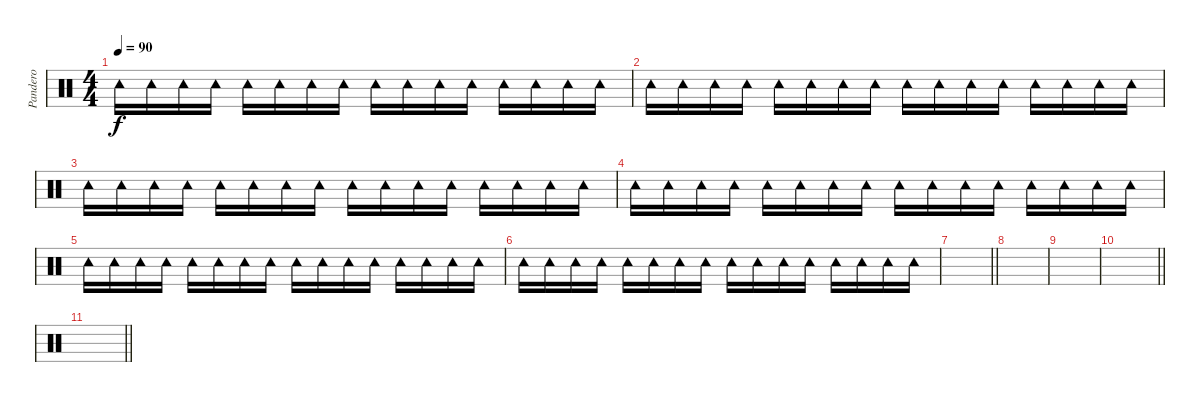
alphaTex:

\track ("Pandero" "Pandero") {instrument percussion}
\staff {score}
\articulation defaults
\ts (4 4)
\tempo 90
\clef neutral
\ks c "Tambourine (hit)".16{dy f} "Tambourine (hit)".16 "Tambourine (hit)".16 "Tambourine (hit)".16 "Tambourine (hit)".16 "Tambourine (hit)".16 "Tambourine (hit)".16 "Tambourine (hit)".16 "Tambourine (hit)".16 "Tambourine (hit)".16 "Tambourine (hit)".16 "Tambourine (hit)".16 "Tambourine (hit)".16 "Tambourine (hit)".16 "Tambourine (hit)".16 "Tambourine (hit)".16
|
"Tambourine (hit)".16 "Tambourine (hit)".16 "Tambourine (hit)".16 "Tambourine (hit)".16 "Tambourine (hit)".16 "Tambourine (hit)".16 "Tambourine (hit)".16 "Tambourine (hit)".16 "Tambourine (hit)".16 "Tambourine (hit)".16 "Tambourine (hit)".16 "Tambourine (hit)".16 "Tambourine (hit)".16 "Tambourine (hit)".16 "Tambourine (hit)".16 "Tambourine (hit)".16 |
"Tambourine (hit)".16 "Tambourine (hit)".16 "Tambourine (hit)".16 "Tambourine (hit)".16 "Tambourine (hit)".16 "Tambourine (hit)".16 "Tambourine (hit)".16 "Tambourine (hit)".16 "Tambourine (hit)".16 "Tambourine (hit)".16 "Tambourine (hit)".16 "Tambourine (hit)".16 "Tambourine (hit)".16 "Tambourine (hit)".16 "Tambourine (hit)".16 "Tambourine (hit)".16 |
"Tambourine (hit)".16 "Tambourine (hit)".16 "Tambourine (hit)".16 "Tambourine (hit)".16 "Tambourine (hit)".16 "Tambourine (hit)".16 "Tambourine (hit)".16 "Tambourine (hit)".16 "Tambourine (hit)".16 "Tambourine (hit)".16 "Tambourine (hit)".16 "Tambourine (hit)".16 "Tambourine (hit)".16 "Tambourine (hit)".16 "Tambourine (hit)".16 "Tambourine (hit)".16 |
"Tambourine (hit)".16 "Tambourine (hit)".16 "Tambourine (hit)".16 "Tambourine (hit)".16 "Tambourine (hit)".16 "Tambourine (hit)".16 "Tambourine (hit)".16 "Tambourine (hit)".16 "Tambourine (hit)".16 "Tambourine (hit)".16 "Tambourine (hit)".16 "Tambourine (hit)".16 "Tambourine (hit)".16 "Tambourine (hit)".16 "Tambourine (hit)".16 "Tambourine (hit)".16 |
"Tambourine (hit)".16 "Tambourine (hit)".16 "Tambourine (hit)".16 "Tambourine (hit)".16 "Tambourine (hit)".16 "Tambourine (hit)".16 "Tambourine (hit)".16 "Tambourine (hit)".16 "Tambourine (hit)".16 "Tambourine (hit)".16 "Tambourine (hit)".16 "Tambourine (hit)".16 "Tambourine (hit)".16 "Tambourine (hit)".16 "Tambourine (hit)".16 "Tambourine (hit)".16 |
\barLineRight lightlight
|
|
|
\barLineRight lightlight
|
\barLineRight lightlight
